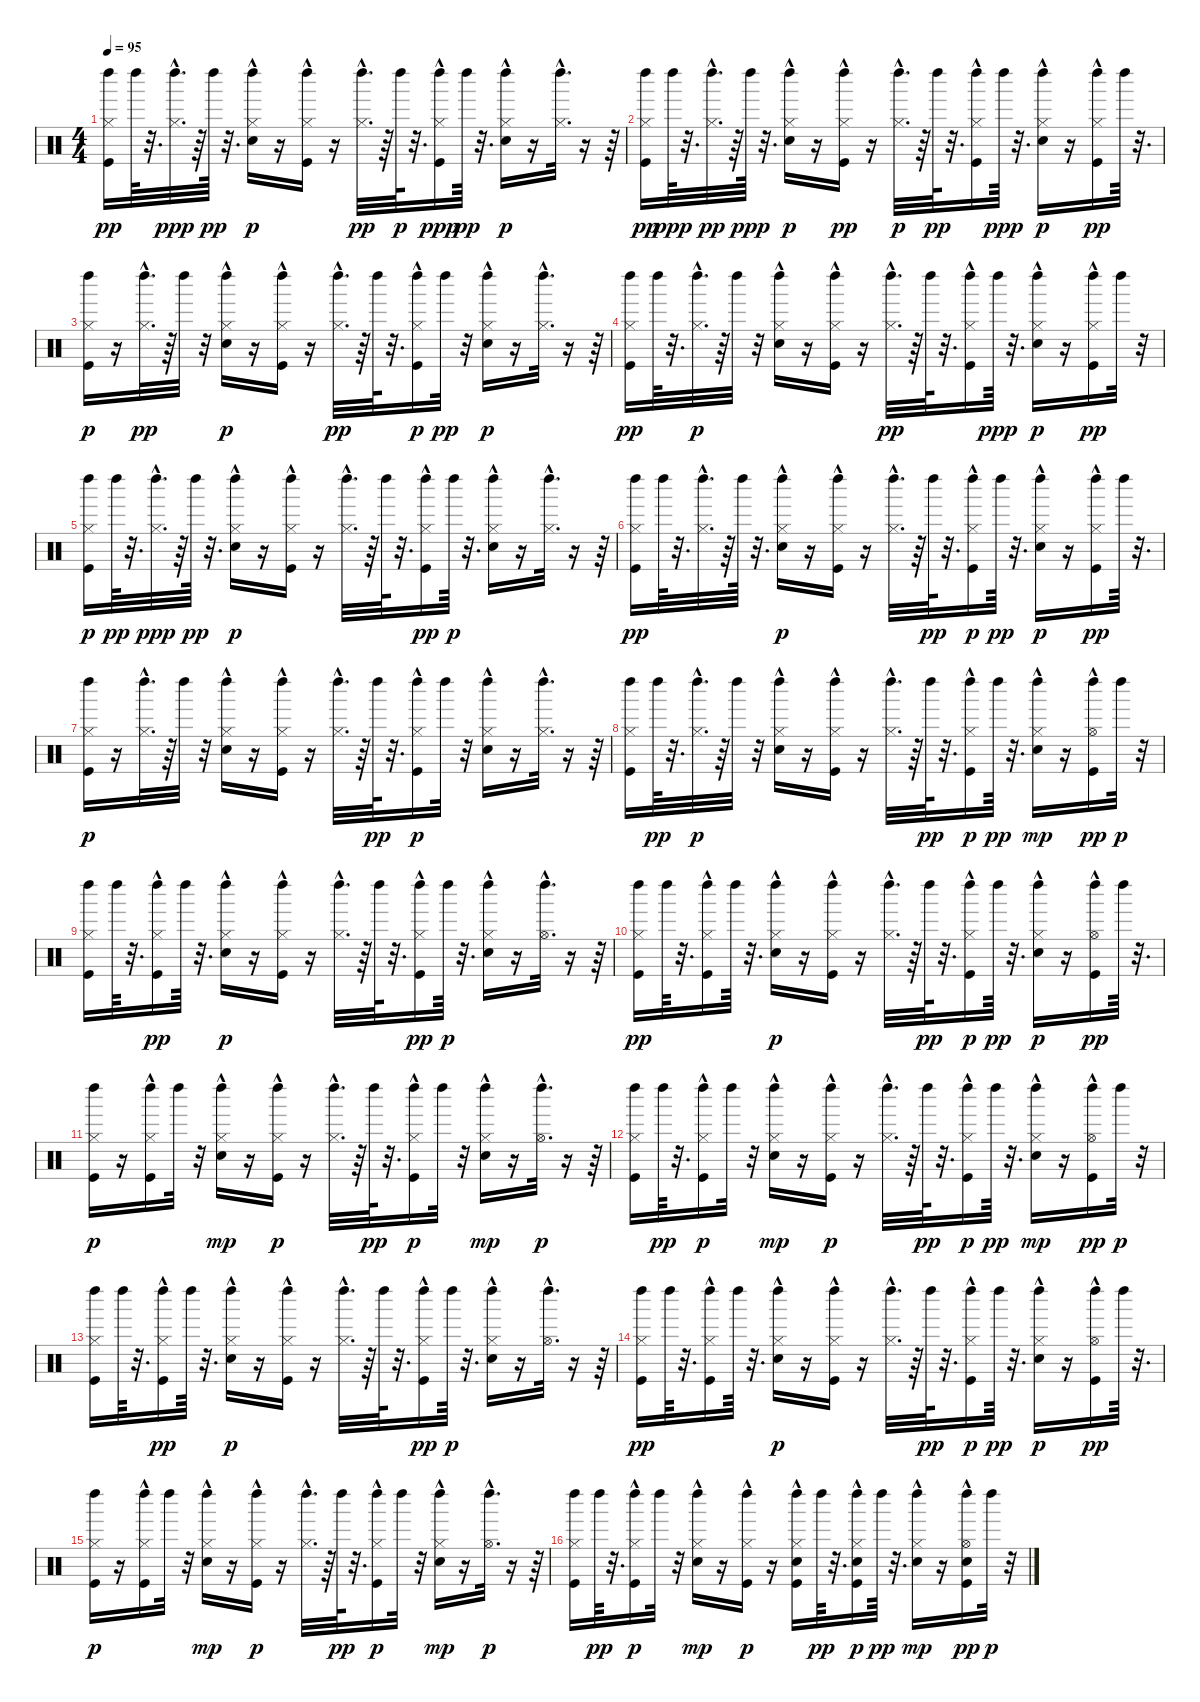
\track "" {instrument percussion}
\staff {score}
\articulation defaults
\ts (4 4)
\tempo 95
\clef neutral
\ks c
("Kick (hit)" "Hi-Hat (closed)" "Left Maraca (hit)").16{dy pp} "Left Maraca (hit)".64 r.32{d} ("Hi-Hat (closed)"{hac} "Left Maraca (hit)").32{d dy ppp} r.64 "Left Maraca (hit)".64{dy pp} r.32{d} ("Electric Snare (hit)" "Hi-Hat (closed)"{hac} "Left Maraca (hit)").16{dy p} r.16 ("Kick (hit)" "Hi-Hat (closed)"{hac} "Left Maraca (hit)").16 r.16 ("Hi-Hat (closed)"{hac} "Left Maraca (hit)").32{d dy pp} r.64 "Left Maraca (hit)".64{dy p} r.32{d} ("Kick (hit)" "Hi-Hat (closed)"{hac} "Left Maraca (hit)").16{dy ppp} "Left Maraca (hit)".64{dy pp} r.32{d} ("Electric Snare (hit)" "Hi-Hat (closed)"{hac} "Left Maraca (hit)").16{dy p} r.16 ("Hi-Hat (closed)"{hac} "Left Maraca (hit)").32{d} r.16 r.64 |
("Kick (hit)" "Hi-Hat (closed)" "Left Maraca (hit)").16{dy pp} "Left Maraca (hit)".64{dy ppp} r.32{d} ("Hi-Hat (closed)"{hac} "Left Maraca (hit)").32{d dy pp} r.64 "Left Maraca (hit)".64{dy ppp} r.32{d} ("Electric Snare (hit)" "Hi-Hat (closed)"{hac} "Left Maraca (hit)").16{dy p} r.16 ("Kick (hit)" "Hi-Hat (closed)"{hac} "Left Maraca (hit)").16{dy pp} r.16 ("Hi-Hat (closed)"{hac} "Left Maraca (hit)").32{d dy p} r.64 "Left Maraca (hit)".64{dy pp} r.32{d} ("Kick (hit)" "Hi-Hat (closed)"{hac} "Left Maraca (hit)").16 "Left Maraca (hit)".64{dy ppp} r.32{d} ("Electric Snare (hit)" "Hi-Hat (closed)"{hac} "Left Maraca (hit)").16{dy p} r.16 ("Kick (hit)" "Hi-Hat (closed)"{hac} "Left Maraca (hit)").16{dy pp} "Left Maraca (hit)".64 r.32{d} |
("Kick (hit)" "Hi-Hat (closed)" "Left Maraca (hit)").16{dy p} r.16 ("Hi-Hat (closed)"{hac} "Left Maraca (hit)").32{d dy pp} r.64 "Left Maraca (hit)".32 r.32 ("Electric Snare (hit)" "Hi-Hat (closed)"{hac} "Left Maraca (hit)").16{dy p} r.16 ("Kick (hit)" "Hi-Hat (closed)"{hac} "Left Maraca (hit)").16 r.16 ("Hi-Hat (closed)"{hac} "Left Maraca (hit)").32{d dy pp} r.64 "Left Maraca (hit)".64 r.32{d} ("Kick (hit)" "Hi-Hat (closed)"{hac} "Left Maraca (hit)").16{dy p} "Left Maraca (hit)".32{dy pp} r.32 ("Electric Snare (hit)" "Hi-Hat (closed)"{hac} "Left Maraca (hit)").16{dy p} r.16 ("Hi-Hat (closed)"{hac} "Left Maraca (hit)").32{d} r.16 r.64 |
("Kick (hit)" "Hi-Hat (closed)" "Left Maraca (hit)").16{dy pp} "Left Maraca (hit)".64 r.32{d} ("Hi-Hat (closed)"{hac} "Left Maraca (hit)").32{d dy p} r.64 "Left Maraca (hit)".32 r.32 ("Electric Snare (hit)" "Hi-Hat (closed)"{hac} "Left Maraca (hit)").16 r.16 ("Kick (hit)" "Hi-Hat (closed)"{hac} "Left Maraca (hit)").16 r.16 ("Hi-Hat (closed)"{hac} "Left Maraca (hit)").32{d dy pp} r.64 "Left Maraca (hit)".64 r.32{d} ("Kick (hit)" "Hi-Hat (closed)"{hac} "Left Maraca (hit)").16 "Left Maraca (hit)".64{dy ppp} r.32{d} ("Electric Snare (hit)" "Hi-Hat (closed)"{hac} "Left Maraca (hit)").16{dy p} r.16 ("Kick (hit)" "Hi-Hat (closed)"{hac} "Left Maraca (hit)").16{dy pp} "Left Maraca (hit)".32 r.32 |
("Kick (hit)" "Hi-Hat (closed)" "Left Maraca (hit)").16{dy p} "Left Maraca (hit)".64{dy pp} r.32{d} ("Hi-Hat (closed)"{hac} "Left Maraca (hit)").32{d dy ppp} r.64 "Left Maraca (hit)".64{dy pp} r.32{d} ("Electric Snare (hit)" "Hi-Hat (closed)"{hac} "Left Maraca (hit)").16{dy p} r.16 ("Kick (hit)" "Hi-Hat (closed)"{hac} "Left Maraca (hit)").16 r.16 ("Hi-Hat (closed)"{hac} "Left Maraca (hit)").32{d} r.64 "Left Maraca (hit)".64 r.32{d} ("Kick (hit)" "Hi-Hat (closed)"{hac} "Left Maraca (hit)").16{dy pp} "Left Maraca (hit)".64{dy p} r.32{d} ("Electric Snare (hit)" "Hi-Hat (closed)"{hac} "Left Maraca (hit)").16 r.16 ("Hi-Hat (closed)"{hac} "Left Maraca (hit)").32{d} r.16 r.64 |
("Kick (hit)" "Hi-Hat (closed)" "Left Maraca (hit)").16{dy pp} "Left Maraca (hit)".64 r.32{d} ("Hi-Hat (closed)"{hac} "Left Maraca (hit)").32{d} r.64 "Left Maraca (hit)".64 r.32{d} ("Electric Snare (hit)" "Hi-Hat (closed)"{hac} "Left Maraca (hit)").16{dy p} r.16 ("Kick (hit)" "Hi-Hat (closed)"{hac} "Left Maraca (hit)").16 r.16 ("Hi-Hat (closed)"{hac} "Left Maraca (hit)").32{d} r.64 "Left Maraca (hit)".64{dy pp} r.32{d} ("Kick (hit)" "Hi-Hat (closed)"{hac} "Left Maraca (hit)").16{dy p} "Left Maraca (hit)".64{dy pp} r.32{d} ("Electric Snare (hit)" "Hi-Hat (closed)"{hac} "Left Maraca (hit)").16{dy p} r.16 ("Kick (hit)" "Hi-Hat (closed)"{hac} "Left Maraca (hit)").16{dy pp} "Left Maraca (hit)".64 r.32{d} |
("Kick (hit)" "Hi-Hat (closed)" "Left Maraca (hit)").16{dy p} r.16 ("Hi-Hat (closed)"{hac} "Left Maraca (hit)").32{d} r.64 "Left Maraca (hit)".32 r.32 ("Electric Snare (hit)" "Hi-Hat (closed)"{hac} "Left Maraca (hit)").16 r.16 ("Kick (hit)" "Hi-Hat (closed)"{hac} "Left Maraca (hit)").16 r.16 ("Hi-Hat (closed)"{hac} "Left Maraca (hit)").32{d} r.64 "Left Maraca (hit)".64{dy pp} r.32{d} ("Kick (hit)" "Hi-Hat (closed)"{hac} "Left Maraca (hit)").16{dy p} "Left Maraca (hit)".32 r.32 ("Electric Snare (hit)" "Hi-Hat (closed)"{hac} "Left Maraca (hit)").16 r.16 ("Hi-Hat (closed)"{hac} "Left Maraca (hit)").32{d} r.16 r.64 |
("Kick (hit)" "Hi-Hat (closed)" "Left Maraca (hit)").16 "Left Maraca (hit)".64{dy pp} r.32{d} ("Hi-Hat (closed)"{hac} "Left Maraca (hit)").32{d dy p} r.64 "Left Maraca (hit)".32 r.32 ("Electric Snare (hit)" "Hi-Hat (closed)"{hac} "Left Maraca (hit)").16 r.16 ("Kick (hit)" "Hi-Hat (closed)"{hac} "Left Maraca (hit)").16 r.16 ("Hi-Hat (closed)"{hac} "Left Maraca (hit)").32{d} r.64 "Left Maraca (hit)".64{dy pp} r.32{d} ("Kick (hit)" "Hi-Hat (closed)"{hac} "Left Maraca (hit)").16{dy p} "Left Maraca (hit)".64{dy pp} r.32{d} ("Electric Snare (hit)" "Hi-Hat (closed)"{hac} "Left Maraca (hit)").16{dy mp} r.16 ("Kick (hit)" "Hi-Hat (open)"{hac} "Left Maraca (hit)").16{dy pp} "Left Maraca (hit)".32{dy p} r.32 |
("Kick (hit)" "Hi-Hat (closed)" "Left Maraca (hit)").16 "Left Maraca (hit)".64 r.32{d} ("Kick (hit)" "Hi-Hat (closed)"{hac} "Left Maraca (hit)").16{dy pp} "Left Maraca (hit)".64 r.32{d} ("Electric Snare (hit)" "Hi-Hat (closed)"{hac} "Left Maraca (hit)").16{dy p} r.16 ("Kick (hit)" "Hi-Hat (closed)"{hac} "Left Maraca (hit)").16 r.16 ("Hi-Hat (closed)"{hac} "Left Maraca (hit)").32{d} r.64 "Left Maraca (hit)".64 r.32{d} ("Kick (hit)" "Hi-Hat (closed)"{hac} "Left Maraca (hit)").16{dy pp} "Left Maraca (hit)".64{dy p} r.32{d} ("Electric Snare (hit)" "Hi-Hat (closed)"{hac} "Left Maraca (hit)").16 r.16 ("Hi-Hat (open)"{hac} "Left Maraca (hit)").32{d} r.16 r.64 |
("Kick (hit)" "Hi-Hat (closed)" "Left Maraca (hit)").16{dy pp} "Left Maraca (hit)".64 r.32{d} ("Kick (hit)" "Hi-Hat (closed)"{hac} "Left Maraca (hit)").16 "Left Maraca (hit)".64 r.32{d} ("Electric Snare (hit)" "Hi-Hat (closed)"{hac} "Left Maraca (hit)").16{dy p} r.16 ("Kick (hit)" "Hi-Hat (closed)"{hac} "Left Maraca (hit)").16 r.16 ("Hi-Hat (closed)"{hac} "Left Maraca (hit)").32{d} r.64 "Left Maraca (hit)".64{dy pp} r.32{d} ("Kick (hit)" "Hi-Hat (closed)"{hac} "Left Maraca (hit)").16{dy p} "Left Maraca (hit)".64{dy pp} r.32{d} ("Electric Snare (hit)" "Hi-Hat (closed)"{hac} "Left Maraca (hit)").16{dy p} r.16 ("Kick (hit)" "Hi-Hat (open)"{hac} "Left Maraca (hit)").16{dy pp} "Left Maraca (hit)".64 r.32{d} |
("Kick (hit)" "Hi-Hat (closed)" "Left Maraca (hit)").16{dy p} r.16 ("Kick (hit)" "Hi-Hat (closed)"{hac} "Left Maraca (hit)").16 "Left Maraca (hit)".32 r.32 ("Electric Snare (hit)" "Hi-Hat (closed)"{hac} "Left Maraca (hit)").16{dy mp} r.16 ("Kick (hit)" "Hi-Hat (closed)"{hac} "Left Maraca (hit)").16{dy p} r.16 ("Hi-Hat (closed)"{hac} "Left Maraca (hit)").32{d} r.64 "Left Maraca (hit)".64{dy pp} r.32{d} ("Kick (hit)" "Hi-Hat (closed)"{hac} "Left Maraca (hit)").16{dy p} "Left Maraca (hit)".32 r.32 ("Electric Snare (hit)" "Hi-Hat (closed)"{hac} "Left Maraca (hit)").16{dy mp} r.16 ("Hi-Hat (open)"{hac} "Left Maraca (hit)").32{d dy p} r.16 r.64 |
("Kick (hit)" "Hi-Hat (closed)" "Left Maraca (hit)").16 "Left Maraca (hit)".64{dy pp} r.32{d} ("Kick (hit)" "Hi-Hat (closed)"{hac} "Left Maraca (hit)").16{dy p} "Left Maraca (hit)".32 r.32 ("Electric Snare (hit)" "Hi-Hat (closed)"{hac} "Left Maraca (hit)").16{dy mp} r.16 ("Kick (hit)" "Hi-Hat (closed)"{hac} "Left Maraca (hit)").16{dy p} r.16 ("Hi-Hat (closed)"{hac} "Left Maraca (hit)").32{d} r.64 "Left Maraca (hit)".64{dy pp} r.32{d} ("Kick (hit)" "Hi-Hat (closed)"{hac} "Left Maraca (hit)").16{dy p} "Left Maraca (hit)".64{dy pp} r.32{d} ("Electric Snare (hit)" "Hi-Hat (closed)"{hac} "Left Maraca (hit)").16{dy mp} r.16 ("Kick (hit)" "Hi-Hat (open)"{hac} "Left Maraca (hit)").16{dy pp} "Left Maraca (hit)".32{dy p} r.32 |
("Kick (hit)" "Hi-Hat (closed)" "Left Maraca (hit)").16 "Left Maraca (hit)".64 r.32{d} ("Kick (hit)" "Hi-Hat (closed)"{hac} "Left Maraca (hit)").16{dy pp} "Left Maraca (hit)".64 r.32{d} ("Electric Snare (hit)" "Hi-Hat (closed)"{hac} "Left Maraca (hit)").16{dy p} r.16 ("Kick (hit)" "Hi-Hat (closed)"{hac} "Left Maraca (hit)").16 r.16 ("Hi-Hat (closed)"{hac} "Left Maraca (hit)").32{d} r.64 "Left Maraca (hit)".64 r.32{d} ("Kick (hit)" "Hi-Hat (closed)"{hac} "Left Maraca (hit)").16{dy pp} "Left Maraca (hit)".64{dy p} r.32{d} ("Electric Snare (hit)" "Hi-Hat (closed)"{hac} "Left Maraca (hit)").16 r.16 ("Hi-Hat (open)"{hac} "Left Maraca (hit)").32{d} r.16 r.64 |
("Kick (hit)" "Hi-Hat (closed)" "Left Maraca (hit)").16{dy pp} "Left Maraca (hit)".64 r.32{d} ("Kick (hit)" "Hi-Hat (closed)"{hac} "Left Maraca (hit)").16 "Left Maraca (hit)".64 r.32{d} ("Electric Snare (hit)" "Hi-Hat (closed)"{hac} "Left Maraca (hit)").16{dy p} r.16 ("Kick (hit)" "Hi-Hat (closed)"{hac} "Left Maraca (hit)").16 r.16 ("Hi-Hat (closed)"{hac} "Left Maraca (hit)").32{d} r.64 "Left Maraca (hit)".64{dy pp} r.32{d} ("Kick (hit)" "Hi-Hat (closed)"{hac} "Left Maraca (hit)").16{dy p} "Left Maraca (hit)".64{dy pp} r.32{d} ("Electric Snare (hit)" "Hi-Hat (closed)"{hac} "Left Maraca (hit)").16{dy p} r.16 ("Kick (hit)" "Hi-Hat (open)"{hac} "Left Maraca (hit)").16{dy pp} "Left Maraca (hit)".64 r.32{d} |
("Kick (hit)" "Hi-Hat (closed)" "Left Maraca (hit)").16{dy p} r.16 ("Kick (hit)" "Hi-Hat (closed)"{hac} "Left Maraca (hit)").16 "Left Maraca (hit)".32 r.32 ("Electric Snare (hit)" "Hi-Hat (closed)"{hac} "Left Maraca (hit)").16{dy mp} r.16 ("Kick (hit)" "Hi-Hat (closed)"{hac} "Left Maraca (hit)").16{dy p} r.16 ("Hi-Hat (closed)"{hac} "Left Maraca (hit)").32{d} r.64 "Left Maraca (hit)".64{dy pp} r.32{d} ("Kick (hit)" "Hi-Hat (closed)"{hac} "Left Maraca (hit)").16{dy p} "Left Maraca (hit)".32 r.32 ("Electric Snare (hit)" "Hi-Hat (closed)"{hac} "Left Maraca (hit)").16{dy mp} r.16 ("Hi-Hat (open)"{hac} "Left Maraca (hit)").32{d dy p} r.16 r.64 |
("Kick (hit)" "Hi-Hat (closed)" "Left Maraca (hit)").16 "Left Maraca (hit)".64{dy pp} r.32{d} ("Kick (hit)" "Hi-Hat (closed)"{hac} "Left Maraca (hit)").16{dy p} "Left Maraca (hit)".32 r.32 ("Electric Snare (hit)" "Hi-Hat (closed)"{hac} "Left Maraca (hit)").16{dy mp} r.16 ("Kick (hit)" "Hi-Hat (closed)"{hac} "Left Maraca (hit)").16{dy p} r.16 ("Kick (hit)" "Electric Snare (hit)" "Hi-Hat (closed)"{hac} "Left Maraca (hit)").16 "Left Maraca (hit)".64{dy pp} r.32{d} ("Kick (hit)" "Electric Snare (hit)" "Hi-Hat (closed)"{hac} "Left Maraca (hit)").16{dy p} "Left Maraca (hit)".64{dy pp} r.32{d} ("Electric Snare (hit)" "Hi-Hat (closed)"{hac} "Left Maraca (hit)").16{dy mp} r.16 ("Kick (hit)" "Electric Snare (hit)" "Hi-Hat (open)"{hac} "Left Maraca (hit)").16{dy pp} "Left Maraca (hit)".32{dy p} r.32
